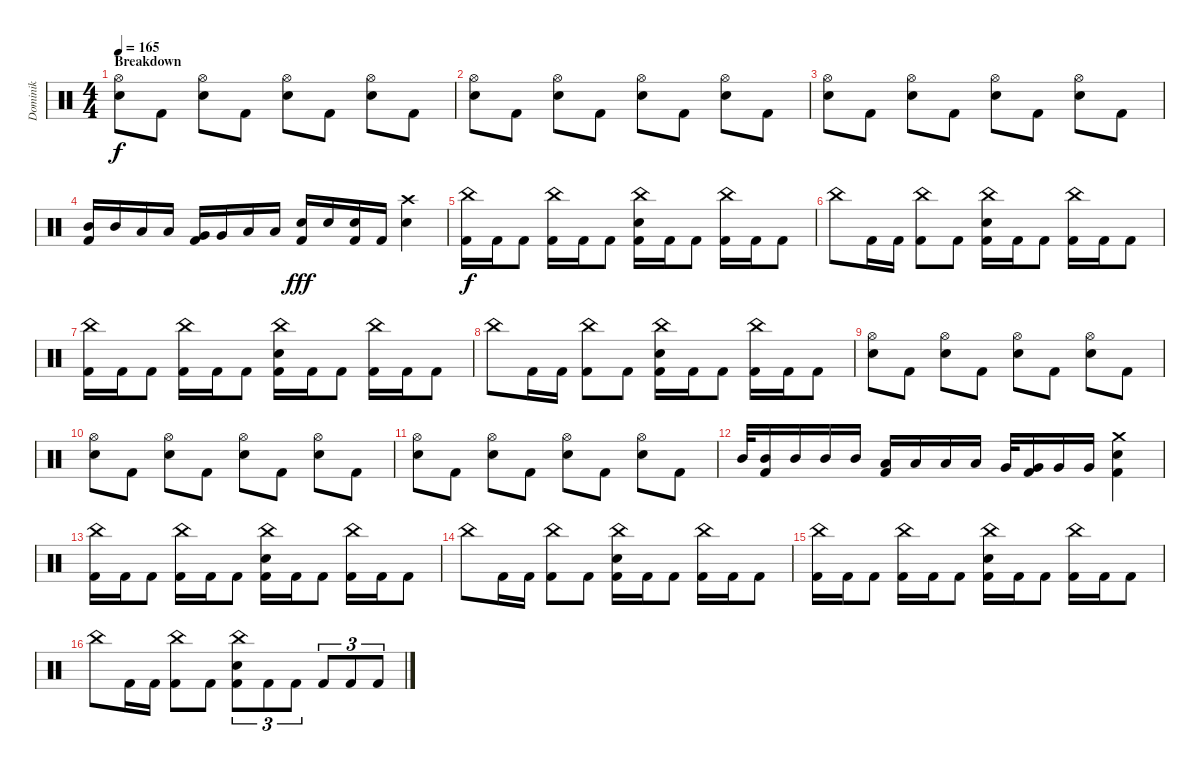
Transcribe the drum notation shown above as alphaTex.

\track ("Dominik" "Dominik") {instrument percussion}
\staff {score}
\articulation defaults
\ts (4 4)
\section ("" "Breakdown")
\tempo 165
\clef neutral
\ks c
("Hi-Hat (open)" "Electric Snare (hit)").8{dy f} "Kick (hit) 2".8 ("Hi-Hat (open)" "Electric Snare (hit)").8 "Kick (hit) 2".8 ("Hi-Hat (open)" "Electric Snare (hit)").8 "Kick (hit) 2".8 ("Hi-Hat (open)" "Electric Snare (hit)").8 "Kick (hit) 2".8 |
("Hi-Hat (open)" "Electric Snare (hit)").8 "Kick (hit) 2".8 ("Hi-Hat (open)" "Electric Snare (hit)").8 "Kick (hit) 2".8 ("Hi-Hat (open)" "Electric Snare (hit)").8 "Kick (hit) 2".8 ("Hi-Hat (open)" "Electric Snare (hit)").8 "Kick (hit) 2".8 |
("Hi-Hat (open)" "Electric Snare (hit)").8 "Kick (hit) 2".8 ("Hi-Hat (open)" "Electric Snare (hit)").8 "Kick (hit) 2".8 ("Hi-Hat (open)" "Electric Snare (hit)").8 "Kick (hit) 2".8 ("Hi-Hat (open)" "Electric Snare (hit)").8 "Kick (hit) 2".8 |
("Mid Tom (hit)" "Kick (hit) 2").16 "Mid Tom (hit)".16 "Low Tom (hit)".16 "Low Tom (hit)".16 ("Very Low Tom (hit)" "Kick (hit) 2").16 "Very Low Tom (hit)".16 "Low Floor Tom (hit)".16 "Low Floor Tom (hit)".16 ("Electric Snare (hit)" "Kick (hit) 2").16{dy fff} "Electric Snare (hit)".16 ("Electric Snare (hit)" "Kick (hit) 2").16 "Kick (hit) 2".16 ("Crash high (hit)" "Electric Snare (hit)").4 |
("China (hit)" "Kick (hit) 2").16{dy f} "Kick (hit) 2".16 "Kick (hit) 2".8 ("China (hit)" "Kick (hit) 2").16 "Kick (hit) 2".16 "Kick (hit) 2".8 ("China (hit)" "Electric Snare (hit)" "Kick (hit) 2").16 "Kick (hit) 2".16 "Kick (hit) 2".8 ("China (hit)" "Kick (hit) 2").16 "Kick (hit) 2".16 "Kick (hit) 2".8 |
"China (hit)".8 "Kick (hit) 2".16 "Kick (hit) 2".16 ("China (hit)" "Kick (hit) 2").8 "Kick (hit) 2".8 ("China (hit)" "Electric Snare (hit)" "Kick (hit) 2").16 "Kick (hit) 2".16 "Kick (hit) 2".8 ("China (hit)" "Kick (hit) 2").16 "Kick (hit) 2".16 "Kick (hit) 2".8 |
("China (hit)" "Kick (hit) 2").16 "Kick (hit) 2".16 "Kick (hit) 2".8 ("China (hit)" "Kick (hit) 2").16 "Kick (hit) 2".16 "Kick (hit) 2".8 ("China (hit)" "Electric Snare (hit)" "Kick (hit) 2").16 "Kick (hit) 2".16 "Kick (hit) 2".8 ("China (hit)" "Kick (hit) 2").16 "Kick (hit) 2".16 "Kick (hit) 2".8 |
"China (hit)".8 "Kick (hit) 2".16 "Kick (hit) 2".16 ("China (hit)" "Kick (hit) 2").8 "Kick (hit) 2".8 ("China (hit)" "Electric Snare (hit)" "Kick (hit) 2").16 "Kick (hit) 2".16 "Kick (hit) 2".8 ("China (hit)" "Kick (hit) 2").16 "Kick (hit) 2".16 "Kick (hit) 2".8 |
("Hi-Hat (open)" "Electric Snare (hit)").8 "Kick (hit) 2".8 ("Hi-Hat (open)" "Electric Snare (hit)").8 "Kick (hit) 2".8 ("Hi-Hat (open)" "Electric Snare (hit)").8 "Kick (hit) 2".8 ("Hi-Hat (open)" "Electric Snare (hit)").8 "Kick (hit) 2".8 |
("Hi-Hat (open)" "Electric Snare (hit)").8 "Kick (hit) 2".8 ("Hi-Hat (open)" "Electric Snare (hit)").8 "Kick (hit) 2".8 ("Hi-Hat (open)" "Electric Snare (hit)").8 "Kick (hit) 2".8 ("Hi-Hat (open)" "Electric Snare (hit)").8 "Kick (hit) 2".8 |
("Hi-Hat (open)" "Electric Snare (hit)").8 "Kick (hit) 2".8 ("Hi-Hat (open)" "Electric Snare (hit)").8 "Kick (hit) 2".8 ("Hi-Hat (open)" "Electric Snare (hit)").8 "Kick (hit) 2".8 ("Hi-Hat (open)" "Electric Snare (hit)").8 "Kick (hit) 2".8 |
"Mid Tom (hit)".32 ("Mid Tom (hit)" "Kick (hit) 2").16 "Mid Tom (hit)".16 "Mid Tom (hit)".16 "Mid Tom (hit)".16 ("Low Tom (hit)" "Kick (hit) 2").16 "Low Tom (hit)".16 "Low Tom (hit)".16 "Low Tom (hit)".16 "Very Low Tom (hit)".32 ("Very Low Tom (hit)" "Kick (hit) 2").16 "Very Low Tom (hit)".16 "Very Low Tom (hit)".16 ("Crash medium (hit)" "Electric Snare (hit)" "Kick (hit) 2").4 |
("China (hit)" "Kick (hit) 2").16 "Kick (hit) 2".16 "Kick (hit) 2".8 ("China (hit)" "Kick (hit) 2").16 "Kick (hit) 2".16 "Kick (hit) 2".8 ("China (hit)" "Electric Snare (hit)" "Kick (hit) 2").16 "Kick (hit) 2".16 "Kick (hit) 2".8 ("China (hit)" "Kick (hit) 2").16 "Kick (hit) 2".16 "Kick (hit) 2".8 |
"China (hit)".8 "Kick (hit) 2".16 "Kick (hit) 2".16 ("China (hit)" "Kick (hit) 2").8 "Kick (hit) 2".8 ("China (hit)" "Electric Snare (hit)" "Kick (hit) 2").16 "Kick (hit) 2".16 "Kick (hit) 2".8 ("China (hit)" "Kick (hit) 2").16 "Kick (hit) 2".16 "Kick (hit) 2".8 |
("China (hit)" "Kick (hit) 2").16 "Kick (hit) 2".16 "Kick (hit) 2".8 ("China (hit)" "Kick (hit) 2").16 "Kick (hit) 2".16 "Kick (hit) 2".8 ("China (hit)" "Electric Snare (hit)" "Kick (hit) 2").16 "Kick (hit) 2".16 "Kick (hit) 2".8 ("China (hit)" "Kick (hit) 2").16 "Kick (hit) 2".16 "Kick (hit) 2".8 |
"China (hit)".8 "Kick (hit) 2".16 "Kick (hit) 2".16 ("China (hit)" "Kick (hit) 2").8 "Kick (hit) 2".8 ("China (hit)" "Electric Snare (hit)" "Kick (hit) 2").8{tu (3 2)} "Kick (hit) 2".8{tu (3 2)} "Kick (hit) 2".8{tu (3 2)} "Kick (hit) 2".8{tu (3 2)} "Kick (hit) 2".8{tu (3 2)} "Kick (hit) 2".8{tu (3 2)}
